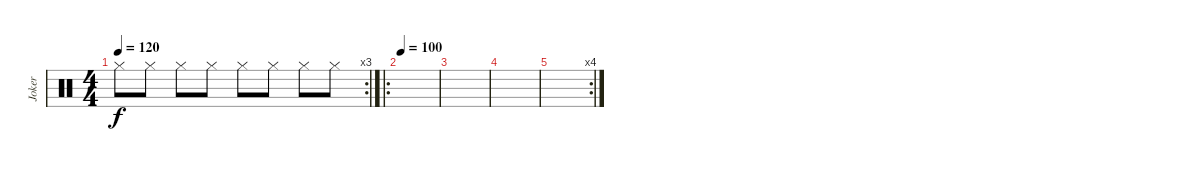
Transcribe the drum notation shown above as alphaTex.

\track ("Joker" "Joker") {instrument percussion}
\staff {score}
\articulation defaults
\rc 3
\ts (4 4)
\tempo 120
\clef neutral
\ks c "Hi-Hat (closed)".8{dy f} "Hi-Hat (closed)".8 "Hi-Hat (closed)".8 "Hi-Hat (closed)".8 "Hi-Hat (closed)".8 "Hi-Hat (closed)".8 "Hi-Hat (closed)".8 "Hi-Hat (closed)".8
|
\ro
\tempo 100
|
|
|
\rc 4
